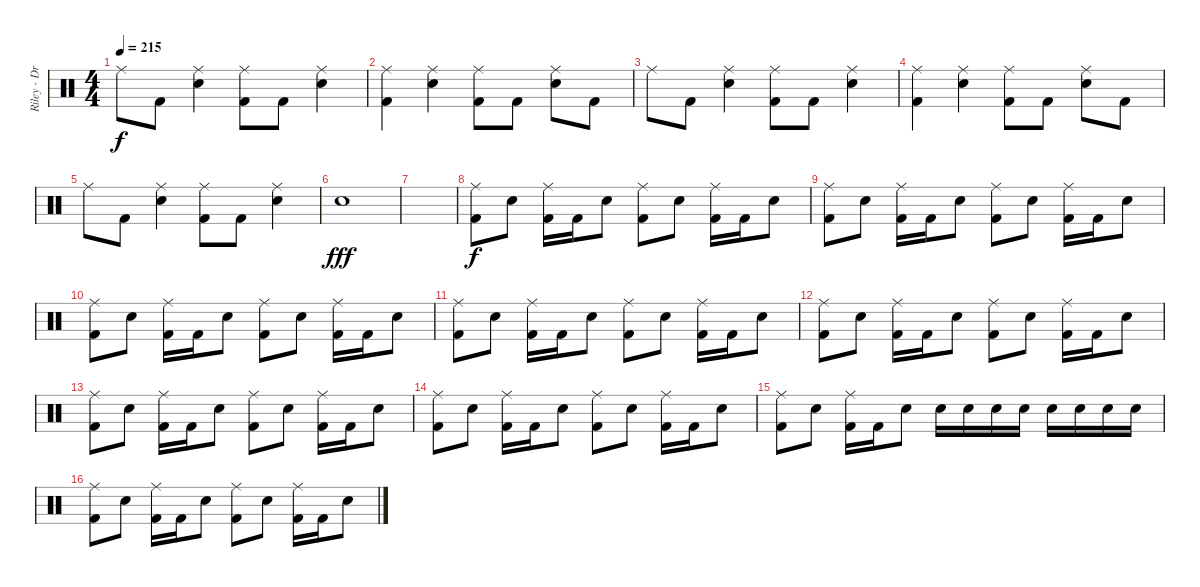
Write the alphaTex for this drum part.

\track ("Riley - Drums" "Riley - Dr") {instrument percussion}
\staff {score}
\articulation defaults
\ts (4 4)
\tempo 215
\clef neutral
\ks c "Ride (middle)".8{dy f} "Kick (hit) 2".8
("Ride (middle)" "Electric Snare (hit)").4 ("Ride (middle)" "Kick (hit) 2").8 "Kick (hit) 2".8 ("Ride (middle)" "Electric Snare (hit)").4 |
("Ride (middle)" "Kick (hit) 2").4 ("Ride (middle)" "Electric Snare (hit)").4 ("Ride (middle)" "Kick (hit) 2").8 "Kick (hit) 2".8 ("Ride (middle)" "Electric Snare (hit)").8 "Kick (hit) 2".8 |
"Ride (middle)".8 "Kick (hit) 2".8 ("Ride (middle)" "Electric Snare (hit)").4 ("Ride (middle)" "Kick (hit) 2").8 "Kick (hit) 2".8 ("Ride (middle)" "Electric Snare (hit)").4 |
("Ride (middle)" "Kick (hit) 2").4 ("Ride (middle)" "Electric Snare (hit)").4 ("Ride (middle)" "Kick (hit) 2").8 "Kick (hit) 2".8 ("Ride (middle)" "Electric Snare (hit)").8 "Kick (hit) 2".8 |
"Ride (middle)".8 "Kick (hit) 2".8 ("Ride (middle)" "Electric Snare (hit)").4 ("Ride (middle)" "Kick (hit) 2").8 "Kick (hit) 2".8 ("Ride (middle)" "Electric Snare (hit)").4 |
"Electric Snare (hit)".1{dy fff} |
|
("Ride (middle)" "Kick (hit) 2").8{dy f} "Electric Snare (hit)".8 ("Ride (middle)" "Kick (hit) 2").16 "Kick (hit) 2".16 "Electric Snare (hit)".8 ("Ride (middle)" "Kick (hit) 2").8 "Electric Snare (hit)".8 ("Ride (middle)" "Kick (hit) 2").16 "Kick (hit) 2".16 "Electric Snare (hit)".8 |
("Ride (middle)" "Kick (hit) 2").8 "Electric Snare (hit)".8 ("Ride (middle)" "Kick (hit) 2").16 "Kick (hit) 2".16 "Electric Snare (hit)".8 ("Ride (middle)" "Kick (hit) 2").8 "Electric Snare (hit)".8 ("Ride (middle)" "Kick (hit) 2").16 "Kick (hit) 2".16 "Electric Snare (hit)".8 |
("Ride (middle)" "Kick (hit) 2").8 "Electric Snare (hit)".8 ("Ride (middle)" "Kick (hit) 2").16 "Kick (hit) 2".16 "Electric Snare (hit)".8 ("Ride (middle)" "Kick (hit) 2").8 "Electric Snare (hit)".8 ("Ride (middle)" "Kick (hit) 2").16 "Kick (hit) 2".16 "Electric Snare (hit)".8 |
("Ride (middle)" "Kick (hit) 2").8 "Electric Snare (hit)".8 ("Ride (middle)" "Kick (hit) 2").16 "Kick (hit) 2".16 "Electric Snare (hit)".8 ("Ride (middle)" "Kick (hit) 2").8 "Electric Snare (hit)".8 ("Ride (middle)" "Kick (hit) 2").16 "Kick (hit) 2".16 "Electric Snare (hit)".8 |
("Ride (middle)" "Kick (hit) 2").8 "Electric Snare (hit)".8 ("Ride (middle)" "Kick (hit) 2").16 "Kick (hit) 2".16 "Electric Snare (hit)".8 ("Ride (middle)" "Kick (hit) 2").8 "Electric Snare (hit)".8 ("Ride (middle)" "Kick (hit) 2").16 "Kick (hit) 2".16 "Electric Snare (hit)".8 |
("Ride (middle)" "Kick (hit) 2").8 "Electric Snare (hit)".8 ("Ride (middle)" "Kick (hit) 2").16 "Kick (hit) 2".16 "Electric Snare (hit)".8 ("Ride (middle)" "Kick (hit) 2").8 "Electric Snare (hit)".8 ("Ride (middle)" "Kick (hit) 2").16 "Kick (hit) 2".16 "Electric Snare (hit)".8 |
("Ride (middle)" "Kick (hit) 2").8 "Electric Snare (hit)".8 ("Ride (middle)" "Kick (hit) 2").16 "Kick (hit) 2".16 "Electric Snare (hit)".8 ("Ride (middle)" "Kick (hit) 2").8 "Electric Snare (hit)".8 ("Ride (middle)" "Kick (hit) 2").16 "Kick (hit) 2".16 "Electric Snare (hit)".8 |
("Ride (middle)" "Kick (hit) 2").8 "Electric Snare (hit)".8 ("Ride (middle)" "Kick (hit) 2").16 "Kick (hit) 2".16 "Electric Snare (hit)".8 "Electric Snare (hit)".16 "Electric Snare (hit)".16 "Electric Snare (hit)".16 "Electric Snare (hit)".16 "Electric Snare (hit)".16 "Electric Snare (hit)".16 "Electric Snare (hit)".16 "Electric Snare (hit)".16 |
("Ride (middle)" "Kick (hit) 2").8 "Electric Snare (hit)".8 ("Ride (middle)" "Kick (hit) 2").16 "Kick (hit) 2".16 "Electric Snare (hit)".8 ("Ride (middle)" "Kick (hit) 2").8 "Electric Snare (hit)".8 ("Ride (middle)" "Kick (hit) 2").16 "Kick (hit) 2".16 "Electric Snare (hit)".8
